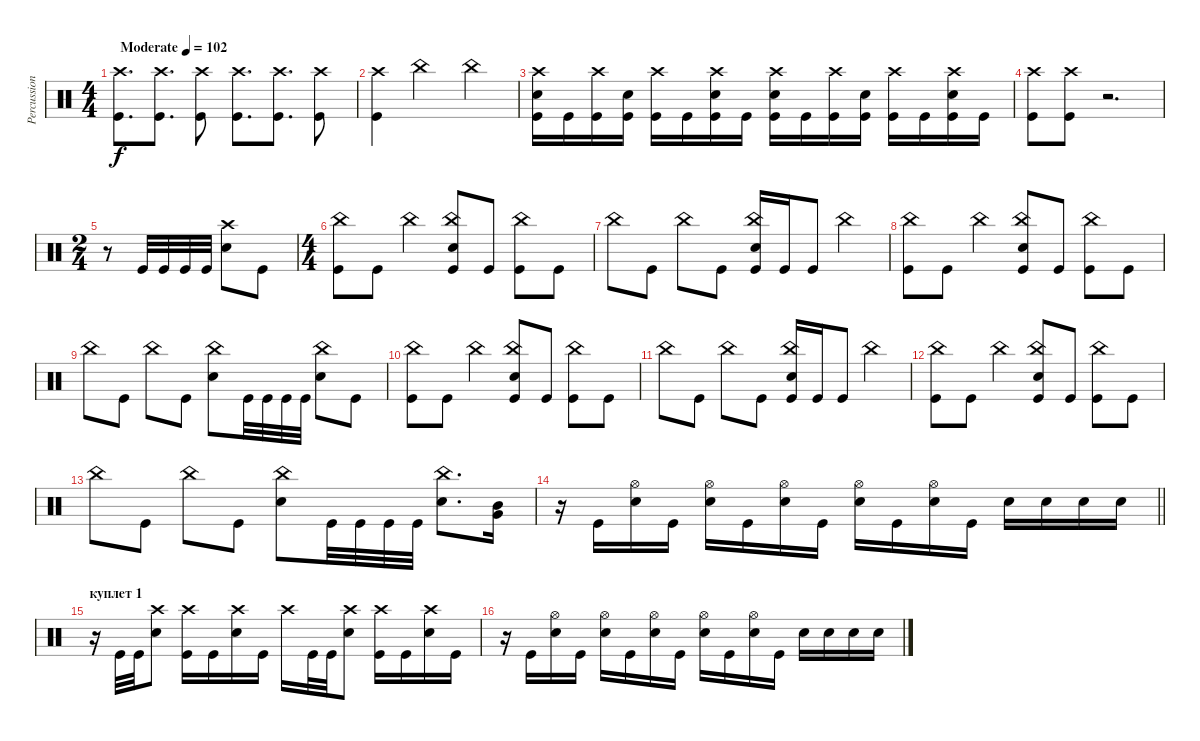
\track ("Percussion" "Percussion") {solo instrument percussion}
\staff {score}
\articulation defaults
\ts (4 4)
\tempo (102 "Moderate")
\clef neutral
\ks c
("Kick (hit)" "Crash high (hit)").8{d dy f} ("Kick (hit)" "Crash high (hit)").8{d} ("Kick (hit)" "Crash high (hit)").8 ("Kick (hit)" "Crash high (hit)").8{d} ("Kick (hit)" "Crash high (hit)").8{d} ("Kick (hit)" "Crash high (hit)").8 |
("Crash high (hit)" "Kick (hit)").4 "China (hit)".2 "China (hit)".4 |
("Kick (hit)" "Crash high (hit)" "Snare (hit) 2").16 "Kick (hit)".16 ("Kick (hit)" "Crash high (hit)").16 ("Kick (hit)" "Snare (hit) 2").16 ("Kick (hit)" "Crash high (hit)").16 "Kick (hit)".16 ("Kick (hit)" "Crash high (hit)" "Snare (hit) 2").16 "Kick (hit)".16 ("Kick (hit)" "Crash high (hit)" "Snare (hit) 2").16 "Kick (hit)".16 ("Kick (hit)" "Crash high (hit)").16 ("Kick (hit)" "Snare (hit) 2").16 ("Kick (hit)" "Crash high (hit)").16 "Kick (hit)".16 ("Kick (hit)" "Crash high (hit)" "Snare (hit) 2").16 "Kick (hit)".16 |
("Kick (hit)" "Crash high (hit)").8 ("Kick (hit)" "Crash high (hit)").8 r.2{d} |
\ts (2 4)
r.8 "Kick (hit)".32 "Kick (hit)".32 "Kick (hit)".32 "Kick (hit)".32 ("Snare (hit) 2" "Crash high (hit)").8 "Kick (hit)".8 |
\ts (4 4)
("Kick (hit)" "China (hit)").8 "Kick (hit)".8 "China (hit)".4 ("Snare (hit) 2" "China (hit)" "Kick (hit)").8 "Kick (hit)".8 ("Kick (hit)" "China (hit)").8 "Kick (hit)".8 |
"China (hit)".8 "Kick (hit)".8 "China (hit)".8 "Kick (hit)".8 ("China (hit)" "Kick (hit)" "Snare (hit) 2").16 "Kick (hit)".16 "Kick (hit)".8 "China (hit)".4 |
("Kick (hit)" "China (hit)").8 "Kick (hit)".8 "China (hit)".4 ("Snare (hit) 2" "China (hit)" "Kick (hit)").8 "Kick (hit)".8 ("Kick (hit)" "China (hit)").8 "Kick (hit)".8 |
"China (hit)".8 "Kick (hit)".8 "China (hit)".8 "Kick (hit)".8 ("China (hit)" "Snare (hit) 2").8 "Kick (hit)".32 "Kick (hit)".32 "Kick (hit)".32 "Kick (hit)".32 ("China (hit)" "Snare (hit) 2").8 "Kick (hit)".8 |
("Kick (hit)" "China (hit)").8 "Kick (hit)".8 "China (hit)".4 ("Snare (hit) 2" "China (hit)" "Kick (hit)").8 "Kick (hit)".8 ("Kick (hit)" "China (hit)").8 "Kick (hit)".8 |
"China (hit)".8 "Kick (hit)".8 "China (hit)".8 "Kick (hit)".8 ("China (hit)" "Kick (hit)" "Snare (hit) 2").16 "Kick (hit)".16 "Kick (hit)".8 "China (hit)".4 |
("Kick (hit)" "China (hit)").8 "Kick (hit)".8 "China (hit)".4 ("Snare (hit) 2" "China (hit)" "Kick (hit)").8 "Kick (hit)".8 ("Kick (hit)" "China (hit)").8 "Kick (hit)".8 |
"China (hit)".8 "Kick (hit)".8 "China (hit)".8 "Kick (hit)".8 ("China (hit)" "Snare (hit) 2").8 "Kick (hit)".32 "Kick (hit)".32 "Kick (hit)".32 "Kick (hit)".32 ("China (hit)" "Snare (hit) 2").8{d} ("Mid Tom (hit)" "Very Low Tom (hit)").16 |
\barLineRight lightlight
r.16 "Kick (hit)".16 ("Snare (hit) 2" "Hi-Hat (open)").16 "Kick (hit)".16 ("Snare (hit) 2" "Hi-Hat (open)").16 "Kick (hit)".16 ("Snare (hit) 2" "Hi-Hat (open)").16 "Kick (hit)".16 ("Snare (hit) 2" "Hi-Hat (open)").16 "Kick (hit)".16 ("Snare (hit) 2" "Hi-Hat (open)").16 "Kick (hit)".16 "Snare (hit) 2".16 "Snare (hit) 2".16 "Snare (hit) 2".16 "Snare (hit) 2".16 |
\section ("" "куплет 1")
r.16 "Kick (hit)".32 "Kick (hit)".32 ("Snare (hit) 2" "Crash high (hit)").8 ("Kick (hit)" "Crash high (hit)").16 "Kick (hit)".16 ("Snare (hit) 2" "Crash high (hit)").16 "Kick (hit)".16 "Crash high (hit)".16 "Kick (hit)".32 "Kick (hit)".32 ("Snare (hit) 2" "Crash high (hit)").8 ("Kick (hit)" "Crash high (hit)").16 "Kick (hit)".16 ("Snare (hit) 2" "Crash high (hit)").16 "Kick (hit)".16 |
r.16 "Kick (hit)".16 ("Snare (hit) 2" "Hi-Hat (open)").16 "Kick (hit)".16 ("Snare (hit) 2" "Hi-Hat (open)").16 "Kick (hit)".16 ("Snare (hit) 2" "Hi-Hat (open)").16 "Kick (hit)".16 ("Snare (hit) 2" "Hi-Hat (open)").16 "Kick (hit)".16 ("Snare (hit) 2" "Hi-Hat (open)").16 "Kick (hit)".16 "Snare (hit) 2".16 "Snare (hit) 2".16 "Snare (hit) 2".16 "Snare (hit) 2".16
